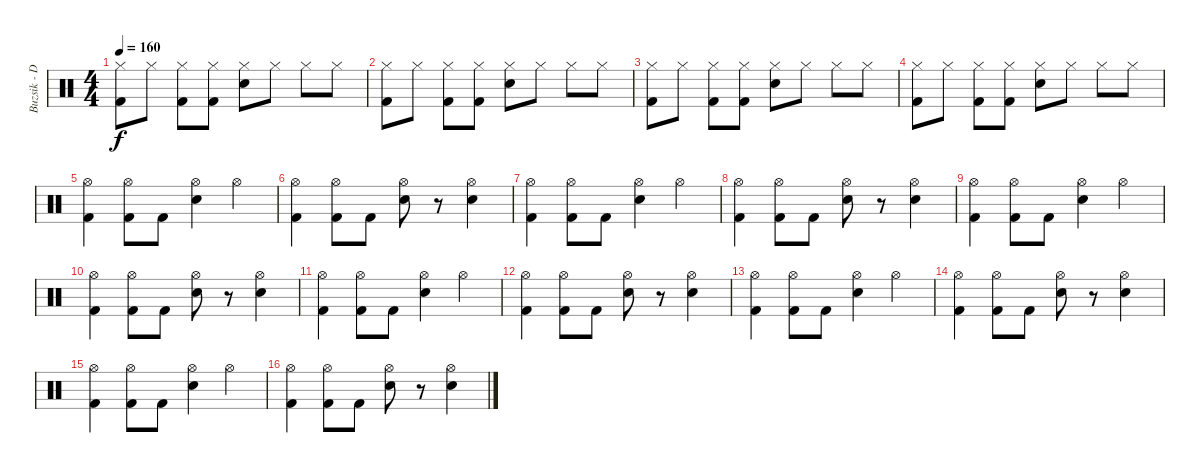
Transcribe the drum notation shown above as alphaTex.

\track ("Buzsik - Dob" "Buzsik - D") {instrument percussion}
\staff {score}
\articulation defaults
\ts (4 4)
\tempo 160
\clef neutral
\ks c
("Hi-Hat (closed)" "Kick (hit) 2").8{dy f} "Hi-Hat (closed)".8 ("Hi-Hat (closed)" "Kick (hit) 2").8 ("Hi-Hat (closed)" "Kick (hit) 2").8 ("Hi-Hat (closed)" "Electric Snare (hit)").8 "Hi-Hat (closed)".8 "Hi-Hat (closed)".8 "Hi-Hat (closed)".8 |
("Hi-Hat (closed)" "Kick (hit) 2").8 "Hi-Hat (closed)".8 ("Hi-Hat (closed)" "Kick (hit) 2").8 ("Hi-Hat (closed)" "Kick (hit) 2").8 ("Hi-Hat (closed)" "Electric Snare (hit)").8 "Hi-Hat (closed)".8 "Hi-Hat (closed)".8 "Hi-Hat (closed)".8 |
("Hi-Hat (closed)" "Kick (hit) 2").8 "Hi-Hat (closed)".8 ("Hi-Hat (closed)" "Kick (hit) 2").8 ("Hi-Hat (closed)" "Kick (hit) 2").8 ("Hi-Hat (closed)" "Electric Snare (hit)").8 "Hi-Hat (closed)".8 "Hi-Hat (closed)".8 "Hi-Hat (closed)".8 |
("Hi-Hat (closed)" "Kick (hit) 2").8 "Hi-Hat (closed)".8 ("Hi-Hat (closed)" "Kick (hit) 2").8 ("Hi-Hat (closed)" "Kick (hit) 2").8 ("Hi-Hat (closed)" "Electric Snare (hit)").8 "Hi-Hat (closed)".8 "Hi-Hat (closed)".8 "Hi-Hat (closed)".8 |
("Hi-Hat (open)" "Kick (hit) 2").4 ("Hi-Hat (open)" "Kick (hit) 2").8 "Kick (hit) 2".8 ("Hi-Hat (open)" "Electric Snare (hit)").4 "Hi-Hat (open)".4 |
("Hi-Hat (open)" "Kick (hit) 2").4 ("Hi-Hat (open)" "Kick (hit) 2").8 "Kick (hit) 2".8 ("Hi-Hat (open)" "Electric Snare (hit)").8 r.8 ("Hi-Hat (open)" "Electric Snare (hit)").4 |
("Hi-Hat (open)" "Kick (hit) 2").4 ("Hi-Hat (open)" "Kick (hit) 2").8 "Kick (hit) 2".8 ("Hi-Hat (open)" "Electric Snare (hit)").4 "Hi-Hat (open)".4 |
("Hi-Hat (open)" "Kick (hit) 2").4 ("Hi-Hat (open)" "Kick (hit) 2").8 "Kick (hit) 2".8 ("Hi-Hat (open)" "Electric Snare (hit)").8 r.8 ("Hi-Hat (open)" "Electric Snare (hit)").4 |
("Hi-Hat (open)" "Kick (hit) 2").4 ("Hi-Hat (open)" "Kick (hit) 2").8 "Kick (hit) 2".8 ("Hi-Hat (open)" "Electric Snare (hit)").4 "Hi-Hat (open)".4 |
("Hi-Hat (open)" "Kick (hit) 2").4 ("Hi-Hat (open)" "Kick (hit) 2").8 "Kick (hit) 2".8 ("Hi-Hat (open)" "Electric Snare (hit)").8 r.8 ("Hi-Hat (open)" "Electric Snare (hit)").4 |
("Hi-Hat (open)" "Kick (hit) 2").4 ("Hi-Hat (open)" "Kick (hit) 2").8 "Kick (hit) 2".8 ("Hi-Hat (open)" "Electric Snare (hit)").4 "Hi-Hat (open)".4 |
("Hi-Hat (open)" "Kick (hit) 2").4 ("Hi-Hat (open)" "Kick (hit) 2").8 "Kick (hit) 2".8 ("Hi-Hat (open)" "Electric Snare (hit)").8 r.8 ("Hi-Hat (open)" "Electric Snare (hit)").4 |
("Hi-Hat (open)" "Kick (hit) 2").4 ("Hi-Hat (open)" "Kick (hit) 2").8 "Kick (hit) 2".8 ("Hi-Hat (open)" "Electric Snare (hit)").4 "Hi-Hat (open)".4 |
("Hi-Hat (open)" "Kick (hit) 2").4 ("Hi-Hat (open)" "Kick (hit) 2").8 "Kick (hit) 2".8 ("Hi-Hat (open)" "Electric Snare (hit)").8 r.8 ("Hi-Hat (open)" "Electric Snare (hit)").4 |
("Hi-Hat (open)" "Kick (hit) 2").4 ("Hi-Hat (open)" "Kick (hit) 2").8 "Kick (hit) 2".8 ("Hi-Hat (open)" "Electric Snare (hit)").4 "Hi-Hat (open)".4 |
("Hi-Hat (open)" "Kick (hit) 2").4 ("Hi-Hat (open)" "Kick (hit) 2").8 "Kick (hit) 2".8 ("Hi-Hat (open)" "Electric Snare (hit)").8 r.8 ("Hi-Hat (open)" "Electric Snare (hit)").4
